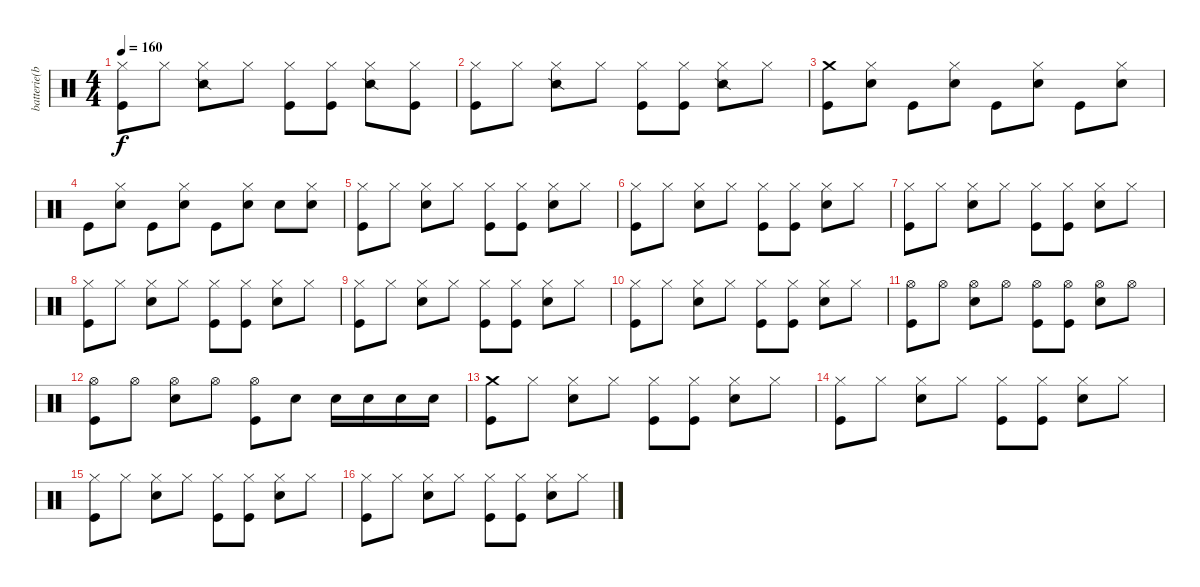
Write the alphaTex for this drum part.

\track ("batterie(brett)" "batterie(b") {instrument percussion}
\staff {score}
\articulation defaults
\ts (4 4)
\tempo 160
\clef neutral
\ks c
("Hi-Hat (closed)" "Kick (hit)").8{dy f} "Hi-Hat (closed)".8 ("Hi-Hat (closed)" "Snare (side stick) 2").8 "Hi-Hat (closed)".8 ("Hi-Hat (closed)" "Kick (hit)").8 ("Hi-Hat (closed)" "Kick (hit)").8 ("Hi-Hat (closed)" "Snare (side stick) 2").8 ("Hi-Hat (closed)" "Kick (hit)").8 |
("Hi-Hat (closed)" "Kick (hit)").8 "Hi-Hat (closed)".8 ("Hi-Hat (closed)" "Snare (side stick) 2").8 "Hi-Hat (closed)".8 ("Hi-Hat (closed)" "Kick (hit)").8 ("Hi-Hat (closed)" "Kick (hit)").8 ("Hi-Hat (closed)" "Snare (side stick) 2").8 "Hi-Hat (closed)".8 |
("Crash medium (hit)" "Kick (hit)").8 ("Hi-Hat (closed)" "Snare (hit) 2").8 "Kick (hit)".8 ("Hi-Hat (closed)" "Snare (hit) 2").8 "Kick (hit)".8 ("Hi-Hat (closed)" "Snare (hit) 2").8 "Kick (hit)".8 ("Hi-Hat (closed)" "Snare (hit) 2").8 |
"Kick (hit)".8 ("Hi-Hat (closed)" "Snare (hit) 2").8 "Kick (hit)".8 ("Hi-Hat (closed)" "Snare (hit) 2").8 "Kick (hit)".8 ("Hi-Hat (closed)" "Snare (hit) 2").8 "Snare (hit) 2".8 ("Hi-Hat (closed)" "Snare (hit) 2").8 |
("Hi-Hat (closed)" "Kick (hit)").8 "Hi-Hat (closed)".8 ("Hi-Hat (closed)" "Snare (hit) 2").8 "Hi-Hat (closed)".8 ("Hi-Hat (closed)" "Kick (hit)").8 ("Hi-Hat (closed)" "Kick (hit)").8 ("Hi-Hat (closed)" "Snare (hit) 2").8 "Hi-Hat (closed)".8 |
("Hi-Hat (closed)" "Kick (hit)").8 "Hi-Hat (closed)".8 ("Hi-Hat (closed)" "Snare (hit) 2").8 "Hi-Hat (closed)".8 ("Hi-Hat (closed)" "Kick (hit)").8 ("Hi-Hat (closed)" "Kick (hit)").8 ("Hi-Hat (closed)" "Snare (hit) 2").8 "Hi-Hat (closed)".8 |
("Hi-Hat (closed)" "Kick (hit)").8 "Hi-Hat (closed)".8 ("Hi-Hat (closed)" "Snare (hit) 2").8 "Hi-Hat (closed)".8 ("Hi-Hat (closed)" "Kick (hit)").8 ("Hi-Hat (closed)" "Kick (hit)").8 ("Hi-Hat (closed)" "Snare (hit) 2").8 "Hi-Hat (closed)".8 |
("Hi-Hat (closed)" "Kick (hit)").8 "Hi-Hat (closed)".8 ("Hi-Hat (closed)" "Snare (hit) 2").8 "Hi-Hat (closed)".8 ("Hi-Hat (closed)" "Kick (hit)").8 ("Hi-Hat (closed)" "Kick (hit)").8 ("Hi-Hat (closed)" "Snare (hit) 2").8 "Hi-Hat (closed)".8 |
("Hi-Hat (closed)" "Kick (hit)").8 "Hi-Hat (closed)".8 ("Hi-Hat (closed)" "Snare (hit) 2").8 "Hi-Hat (closed)".8 ("Hi-Hat (closed)" "Kick (hit)").8 ("Hi-Hat (closed)" "Kick (hit)").8 ("Hi-Hat (closed)" "Snare (hit) 2").8 "Hi-Hat (closed)".8 |
("Hi-Hat (closed)" "Kick (hit)").8 "Hi-Hat (closed)".8 ("Hi-Hat (closed)" "Snare (hit) 2").8 "Hi-Hat (closed)".8 ("Hi-Hat (closed)" "Kick (hit)").8 ("Hi-Hat (closed)" "Kick (hit)").8 ("Hi-Hat (closed)" "Snare (hit) 2").8 "Hi-Hat (closed)".8 |
("Hi-Hat (open)" "Kick (hit)").8 "Hi-Hat (open)".8 ("Hi-Hat (open)" "Snare (hit) 2").8 "Hi-Hat (open)".8 ("Hi-Hat (open)" "Kick (hit)").8 ("Hi-Hat (open)" "Kick (hit)").8 ("Hi-Hat (open)" "Snare (hit) 2").8 "Hi-Hat (open)".8 |
("Hi-Hat (open)" "Kick (hit)").8 "Hi-Hat (open)".8 ("Hi-Hat (open)" "Snare (hit) 2").8 "Hi-Hat (open)".8 ("Hi-Hat (open)" "Kick (hit)").8 "Snare (hit) 2".8 "Snare (hit) 2".16 "Snare (hit) 2".16 "Snare (hit) 2".16 "Snare (hit) 2".16 |
("Crash medium (hit)" "Kick (hit)").8 "Hi-Hat (closed)".8 ("Hi-Hat (closed)" "Snare (hit) 2").8 "Hi-Hat (closed)".8 ("Hi-Hat (closed)" "Kick (hit)").8 ("Hi-Hat (closed)" "Kick (hit)").8 ("Hi-Hat (closed)" "Snare (hit) 2").8 "Hi-Hat (closed)".8 |
("Hi-Hat (closed)" "Kick (hit)").8 "Hi-Hat (closed)".8 ("Hi-Hat (closed)" "Snare (hit) 2").8 "Hi-Hat (closed)".8 ("Hi-Hat (closed)" "Kick (hit)").8 ("Hi-Hat (closed)" "Kick (hit)").8 ("Hi-Hat (closed)" "Snare (hit) 2").8 "Hi-Hat (closed)".8 |
("Hi-Hat (closed)" "Kick (hit)").8 "Hi-Hat (closed)".8 ("Hi-Hat (closed)" "Snare (hit) 2").8 "Hi-Hat (closed)".8 ("Hi-Hat (closed)" "Kick (hit)").8 ("Hi-Hat (closed)" "Kick (hit)").8 ("Hi-Hat (closed)" "Snare (hit) 2").8 "Hi-Hat (closed)".8 |
("Hi-Hat (closed)" "Kick (hit)").8 "Hi-Hat (closed)".8 ("Hi-Hat (closed)" "Snare (hit) 2").8 "Hi-Hat (closed)".8 ("Hi-Hat (closed)" "Kick (hit)").8 ("Hi-Hat (closed)" "Kick (hit)").8 ("Hi-Hat (closed)" "Snare (hit) 2").8 "Hi-Hat (closed)".8
